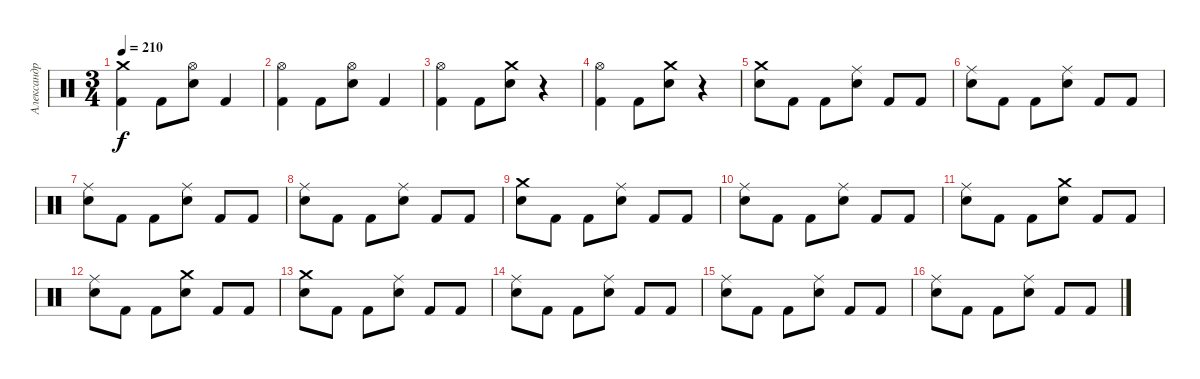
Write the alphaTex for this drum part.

\track ("Александр Манякин" "Александр ") {instrument percussion}
\staff {score}
\articulation defaults
\ts (3 4)
\tempo 210
\clef neutral
\ks c
("Crash medium (hit)" "Kick (hit) 2").4{dy f} "Kick (hit) 2".8 ("Hi-Hat (open)" "Snare (hit) 2").8 "Kick (hit) 2".4 |
("Hi-Hat (open)" "Kick (hit) 2").4 "Kick (hit) 2".8 ("Hi-Hat (open)" "Snare (hit) 2").8 "Kick (hit) 2".4 |
("Hi-Hat (open)" "Kick (hit) 2").4 "Kick (hit) 2".8 ("Crash medium (hit)" "Snare (hit) 2").8 r.4 |
("Hi-Hat (open)" "Kick (hit) 2").4 "Kick (hit) 2".8 ("Crash medium (hit)" "Snare (hit) 2").8 r.4 |
("Crash medium (hit)" "Snare (hit) 2").8 "Kick (hit) 2".8 "Kick (hit) 2".8 ("Ride (middle)" "Snare (hit) 2").8 "Kick (hit) 2".8 "Kick (hit) 2".8 |
("Ride (middle)" "Snare (hit) 2").8 "Kick (hit) 2".8 "Kick (hit) 2".8 ("Ride (middle)" "Snare (hit) 2").8 "Kick (hit) 2".8 "Kick (hit) 2".8 |
("Ride (middle)" "Snare (hit) 2").8 "Kick (hit) 2".8 "Kick (hit) 2".8 ("Ride (middle)" "Snare (hit) 2").8 "Kick (hit) 2".8 "Kick (hit) 2".8 |
("Ride (middle)" "Snare (hit) 2").8 "Kick (hit) 2".8 "Kick (hit) 2".8 ("Ride (middle)" "Snare (hit) 2").8 "Kick (hit) 2".8 "Kick (hit) 2".8 |
("Crash medium (hit)" "Snare (hit) 2").8 "Kick (hit) 2".8 "Kick (hit) 2".8 ("Ride (middle)" "Snare (hit) 2").8 "Kick (hit) 2".8 "Kick (hit) 2".8 |
("Ride (middle)" "Snare (hit) 2").8 "Kick (hit) 2".8 "Kick (hit) 2".8 ("Ride (middle)" "Snare (hit) 2").8 "Kick (hit) 2".8 "Kick (hit) 2".8 |
("Ride (middle)" "Snare (hit) 2").8 "Kick (hit) 2".8 "Kick (hit) 2".8 ("Crash medium (hit)" "Snare (hit) 2").8 "Kick (hit) 2".8 "Kick (hit) 2".8 |
("Ride (middle)" "Snare (hit) 2").8 "Kick (hit) 2".8 "Kick (hit) 2".8 ("Crash medium (hit)" "Snare (hit) 2").8 "Kick (hit) 2".8 "Kick (hit) 2".8 |
("Crash medium (hit)" "Snare (hit) 2").8 "Kick (hit) 2".8 "Kick (hit) 2".8 ("Ride (middle)" "Snare (hit) 2").8 "Kick (hit) 2".8 "Kick (hit) 2".8 |
("Ride (middle)" "Snare (hit) 2").8 "Kick (hit) 2".8 "Kick (hit) 2".8 ("Ride (middle)" "Snare (hit) 2").8 "Kick (hit) 2".8 "Kick (hit) 2".8 |
("Ride (middle)" "Snare (hit) 2").8 "Kick (hit) 2".8 "Kick (hit) 2".8 ("Ride (middle)" "Snare (hit) 2").8 "Kick (hit) 2".8 "Kick (hit) 2".8 |
("Ride (middle)" "Snare (hit) 2").8 "Kick (hit) 2".8 "Kick (hit) 2".8 ("Ride (middle)" "Snare (hit) 2").8 "Kick (hit) 2".8 "Kick (hit) 2".8
